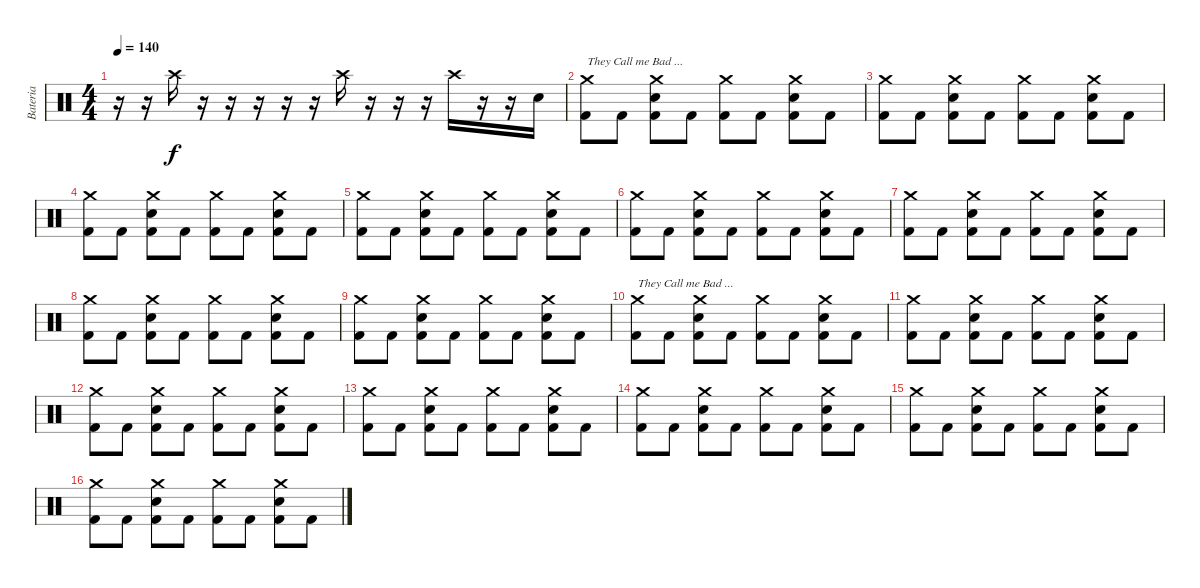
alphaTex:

\track ("Bateria" "Bateria") {instrument percussion}
\staff {score}
\articulation defaults
\ts (4 4)
\tempo 140
\clef neutral
\ks c
r.16{dy f} r.16 "Crash high (hit)".16 r.16 r.16 r.16 r.16 r.16 "Crash high (hit)".16 r.16 r.16 r.16 "Crash high (hit)".16 r.16 r.16 "Electric Snare (hit)".16 |
("Kick (hit) 2" "Crash medium (hit)").8{txt "They Call me Bad ..."} "Kick (hit) 2".8 ("Kick (hit) 2" "Crash medium (hit)" "Electric Snare (hit)").8 "Kick (hit) 2".8 ("Kick (hit) 2" "Crash medium (hit)").8 "Kick (hit) 2".8 ("Kick (hit) 2" "Crash medium (hit)" "Electric Snare (hit)").8 "Kick (hit) 2".8 |
("Kick (hit) 2" "Crash medium (hit)").8 "Kick (hit) 2".8 ("Kick (hit) 2" "Crash medium (hit)" "Electric Snare (hit)").8 "Kick (hit) 2".8 ("Kick (hit) 2" "Crash medium (hit)").8 "Kick (hit) 2".8 ("Kick (hit) 2" "Crash medium (hit)" "Electric Snare (hit)").8 "Kick (hit) 2".8 |
("Kick (hit) 2" "Crash medium (hit)").8 "Kick (hit) 2".8 ("Kick (hit) 2" "Crash medium (hit)" "Electric Snare (hit)").8 "Kick (hit) 2".8 ("Kick (hit) 2" "Crash medium (hit)").8 "Kick (hit) 2".8 ("Kick (hit) 2" "Crash medium (hit)" "Electric Snare (hit)").8 "Kick (hit) 2".8 |
("Kick (hit) 2" "Crash medium (hit)").8 "Kick (hit) 2".8 ("Kick (hit) 2" "Crash medium (hit)" "Electric Snare (hit)").8 "Kick (hit) 2".8 ("Kick (hit) 2" "Crash medium (hit)").8 "Kick (hit) 2".8 ("Kick (hit) 2" "Crash medium (hit)" "Electric Snare (hit)").8 "Kick (hit) 2".8 |
("Kick (hit) 2" "Crash medium (hit)").8 "Kick (hit) 2".8 ("Kick (hit) 2" "Crash medium (hit)" "Electric Snare (hit)").8 "Kick (hit) 2".8 ("Kick (hit) 2" "Crash medium (hit)").8 "Kick (hit) 2".8 ("Kick (hit) 2" "Crash medium (hit)" "Electric Snare (hit)").8 "Kick (hit) 2".8 |
("Kick (hit) 2" "Crash medium (hit)").8 "Kick (hit) 2".8 ("Kick (hit) 2" "Crash medium (hit)" "Electric Snare (hit)").8 "Kick (hit) 2".8 ("Kick (hit) 2" "Crash medium (hit)").8 "Kick (hit) 2".8 ("Kick (hit) 2" "Crash medium (hit)" "Electric Snare (hit)").8 "Kick (hit) 2".8 |
("Kick (hit) 2" "Crash medium (hit)").8 "Kick (hit) 2".8 ("Kick (hit) 2" "Crash medium (hit)" "Electric Snare (hit)").8 "Kick (hit) 2".8 ("Kick (hit) 2" "Crash medium (hit)").8 "Kick (hit) 2".8 ("Kick (hit) 2" "Crash medium (hit)" "Electric Snare (hit)").8 "Kick (hit) 2".8 |
("Kick (hit) 2" "Crash medium (hit)").8 "Kick (hit) 2".8 ("Kick (hit) 2" "Crash medium (hit)" "Electric Snare (hit)").8 "Kick (hit) 2".8 ("Kick (hit) 2" "Crash medium (hit)").8 "Kick (hit) 2".8 ("Kick (hit) 2" "Crash medium (hit)" "Electric Snare (hit)").8 "Kick (hit) 2".8 |
("Kick (hit) 2" "Crash medium (hit)").8{txt "They Call me Bad ..."} "Kick (hit) 2".8 ("Kick (hit) 2" "Crash medium (hit)" "Electric Snare (hit)").8 "Kick (hit) 2".8 ("Kick (hit) 2" "Crash medium (hit)").8 "Kick (hit) 2".8 ("Kick (hit) 2" "Crash medium (hit)" "Electric Snare (hit)").8 "Kick (hit) 2".8 |
("Kick (hit) 2" "Crash medium (hit)").8 "Kick (hit) 2".8 ("Kick (hit) 2" "Crash medium (hit)" "Electric Snare (hit)").8 "Kick (hit) 2".8 ("Kick (hit) 2" "Crash medium (hit)").8 "Kick (hit) 2".8 ("Kick (hit) 2" "Crash medium (hit)" "Electric Snare (hit)").8 "Kick (hit) 2".8 |
("Kick (hit) 2" "Crash medium (hit)").8 "Kick (hit) 2".8 ("Kick (hit) 2" "Crash medium (hit)" "Electric Snare (hit)").8 "Kick (hit) 2".8 ("Kick (hit) 2" "Crash medium (hit)").8 "Kick (hit) 2".8 ("Kick (hit) 2" "Crash medium (hit)" "Electric Snare (hit)").8 "Kick (hit) 2".8 |
("Kick (hit) 2" "Crash medium (hit)").8 "Kick (hit) 2".8 ("Kick (hit) 2" "Crash medium (hit)" "Electric Snare (hit)").8 "Kick (hit) 2".8 ("Kick (hit) 2" "Crash medium (hit)").8 "Kick (hit) 2".8 ("Kick (hit) 2" "Crash medium (hit)" "Electric Snare (hit)").8 "Kick (hit) 2".8 |
("Kick (hit) 2" "Crash medium (hit)").8 "Kick (hit) 2".8 ("Kick (hit) 2" "Crash medium (hit)" "Electric Snare (hit)").8 "Kick (hit) 2".8 ("Kick (hit) 2" "Crash medium (hit)").8 "Kick (hit) 2".8 ("Kick (hit) 2" "Crash medium (hit)" "Electric Snare (hit)").8 "Kick (hit) 2".8 |
("Kick (hit) 2" "Crash medium (hit)").8 "Kick (hit) 2".8 ("Kick (hit) 2" "Crash medium (hit)" "Electric Snare (hit)").8 "Kick (hit) 2".8 ("Kick (hit) 2" "Crash medium (hit)").8 "Kick (hit) 2".8 ("Kick (hit) 2" "Crash medium (hit)" "Electric Snare (hit)").8 "Kick (hit) 2".8 |
("Kick (hit) 2" "Crash medium (hit)").8 "Kick (hit) 2".8 ("Kick (hit) 2" "Crash medium (hit)" "Electric Snare (hit)").8 "Kick (hit) 2".8 ("Kick (hit) 2" "Crash medium (hit)").8 "Kick (hit) 2".8 ("Kick (hit) 2" "Crash medium (hit)" "Electric Snare (hit)").8 "Kick (hit) 2".8
